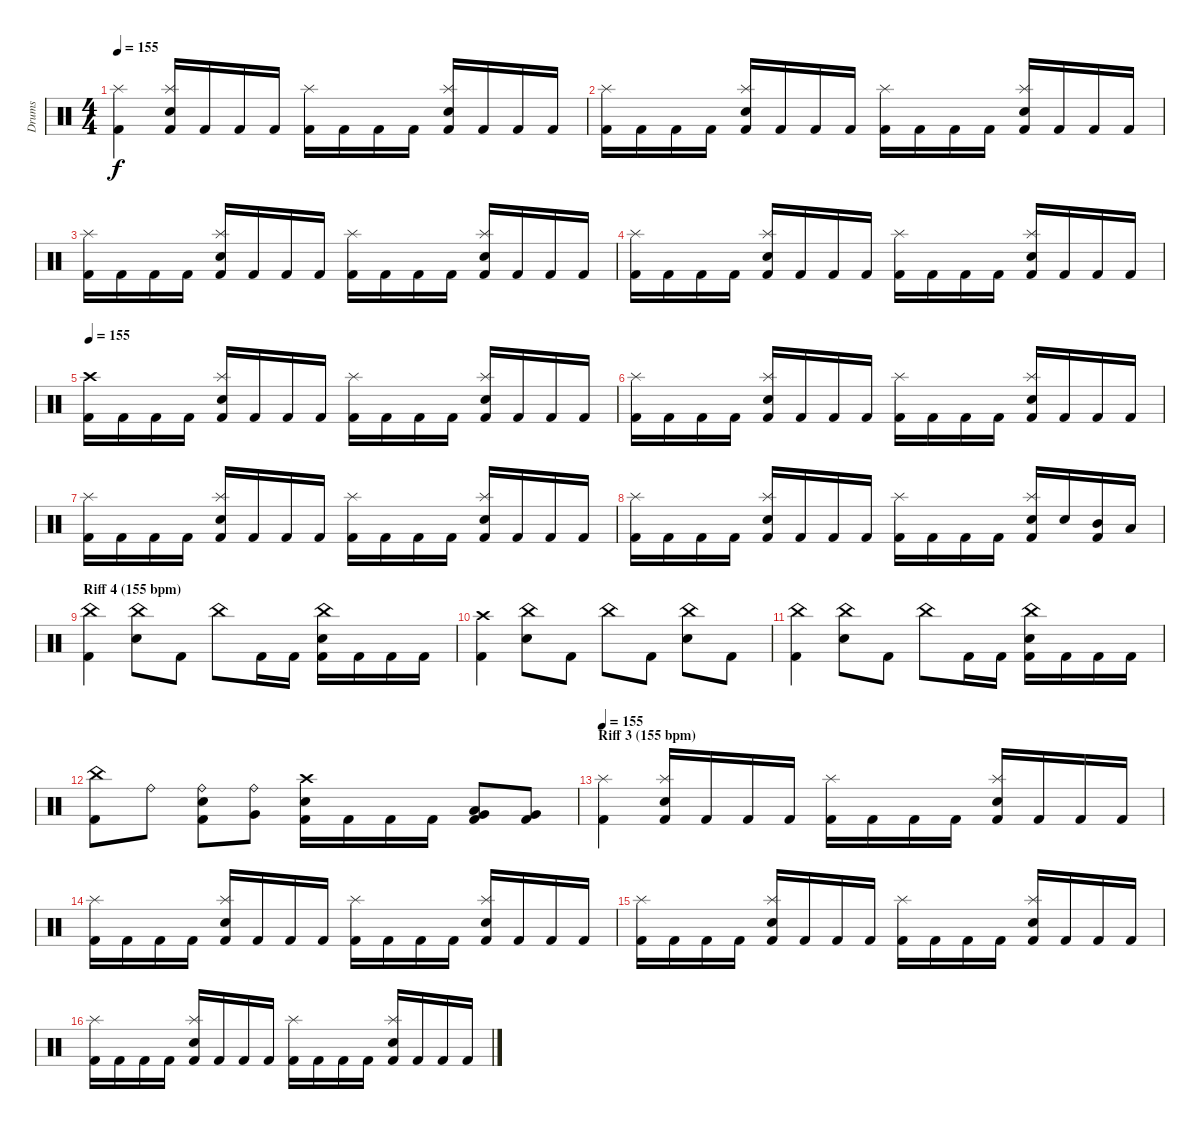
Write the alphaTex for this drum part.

\track ("Drums" "Drums") {instrument percussion}
\staff {score}
\articulation defaults
\ts (4 4)
\tempo 155
\clef neutral
\ks c
("Kick (hit) 2" "Splash (hit)").4{dy f} ("Kick (hit) 2" "Snare (hit) 2" "Splash (hit)").16 "Kick (hit) 2".16 "Kick (hit) 2".16 "Kick (hit) 2".16 ("Kick (hit) 2" "Splash (hit)").16 "Kick (hit) 2".16 "Kick (hit) 2".16 "Kick (hit) 2".16 ("Kick (hit) 2" "Snare (hit) 2" "Splash (hit)").16 "Kick (hit) 2".16 "Kick (hit) 2".16 "Kick (hit) 2".16 |
("Kick (hit) 2" "Splash (hit)").16 "Kick (hit) 2".16 "Kick (hit) 2".16 "Kick (hit) 2".16 ("Kick (hit) 2" "Snare (hit) 2" "Splash (hit)").16 "Kick (hit) 2".16 "Kick (hit) 2".16 "Kick (hit) 2".16 ("Kick (hit) 2" "Splash (hit)").16 "Kick (hit) 2".16 "Kick (hit) 2".16 "Kick (hit) 2".16 ("Kick (hit) 2" "Snare (hit) 2" "Splash (hit)").16 "Kick (hit) 2".16 "Kick (hit) 2".16 "Kick (hit) 2".16 |
("Kick (hit) 2" "Splash (hit)").16 "Kick (hit) 2".16 "Kick (hit) 2".16 "Kick (hit) 2".16 ("Kick (hit) 2" "Snare (hit) 2" "Splash (hit)").16 "Kick (hit) 2".16 "Kick (hit) 2".16 "Kick (hit) 2".16 ("Kick (hit) 2" "Splash (hit)").16 "Kick (hit) 2".16 "Kick (hit) 2".16 "Kick (hit) 2".16 ("Kick (hit) 2" "Snare (hit) 2" "Splash (hit)").16 "Kick (hit) 2".16 "Kick (hit) 2".16 "Kick (hit) 2".16 |
("Kick (hit) 2" "Splash (hit)").16 "Kick (hit) 2".16 "Kick (hit) 2".16 "Kick (hit) 2".16 ("Kick (hit) 2" "Snare (hit) 2" "Splash (hit)").16 "Kick (hit) 2".16 "Kick (hit) 2".16 "Kick (hit) 2".16 ("Kick (hit) 2" "Splash (hit)").16 "Kick (hit) 2".16 "Kick (hit) 2".16 "Kick (hit) 2".16 ("Kick (hit) 2" "Snare (hit) 2" "Splash (hit)").16 "Kick (hit) 2".16 "Kick (hit) 2".16 "Kick (hit) 2".16 |
\tempo 155
("Kick (hit) 2" "Crash high (hit)").16 "Kick (hit) 2".16 "Kick (hit) 2".16 "Kick (hit) 2".16 ("Kick (hit) 2" "Snare (hit) 2" "Splash (hit)").16 "Kick (hit) 2".16 "Kick (hit) 2".16 "Kick (hit) 2".16 ("Kick (hit) 2" "Splash (hit)").16 "Kick (hit) 2".16 "Kick (hit) 2".16 "Kick (hit) 2".16 ("Kick (hit) 2" "Snare (hit) 2" "Splash (hit)").16 "Kick (hit) 2".16 "Kick (hit) 2".16 "Kick (hit) 2".16 |
("Kick (hit) 2" "Splash (hit)").16 "Kick (hit) 2".16 "Kick (hit) 2".16 "Kick (hit) 2".16 ("Kick (hit) 2" "Snare (hit) 2" "Splash (hit)").16 "Kick (hit) 2".16 "Kick (hit) 2".16 "Kick (hit) 2".16 ("Kick (hit) 2" "Splash (hit)").16 "Kick (hit) 2".16 "Kick (hit) 2".16 "Kick (hit) 2".16 ("Kick (hit) 2" "Snare (hit) 2" "Splash (hit)").16 "Kick (hit) 2".16 "Kick (hit) 2".16 "Kick (hit) 2".16 |
("Kick (hit) 2" "Splash (hit)").16 "Kick (hit) 2".16 "Kick (hit) 2".16 "Kick (hit) 2".16 ("Kick (hit) 2" "Snare (hit) 2" "Splash (hit)").16 "Kick (hit) 2".16 "Kick (hit) 2".16 "Kick (hit) 2".16 ("Kick (hit) 2" "Splash (hit)").16 "Kick (hit) 2".16 "Kick (hit) 2".16 "Kick (hit) 2".16 ("Kick (hit) 2" "Snare (hit) 2" "Splash (hit)").16 "Kick (hit) 2".16 "Kick (hit) 2".16 "Kick (hit) 2".16 |
("Kick (hit) 2" "Splash (hit)").16 "Kick (hit) 2".16 "Kick (hit) 2".16 "Kick (hit) 2".16 ("Kick (hit) 2" "Snare (hit) 2" "Splash (hit)").16 "Kick (hit) 2".16 "Kick (hit) 2".16 "Kick (hit) 2".16 ("Kick (hit) 2" "Splash (hit)").16 "Kick (hit) 2".16 "Kick (hit) 2".16 "Kick (hit) 2".16 ("Kick (hit) 2" "Snare (hit) 2" "Splash (hit)").16 "Snare (hit) 2".16 ("Kick (hit) 2" "Mid Tom (hit)").16 "Low Tom (hit)".16 |
\section ("" "Riff 4 (155 bpm)")
("Kick (hit) 2" "China (hit)").4 ("Snare (hit) 2" "China (hit)").8 "Kick (hit) 2".8 "China (hit)".8 "Kick (hit) 2".16 "Kick (hit) 2".16 ("Kick (hit) 2" "Snare (hit) 2" "China (hit)").16 "Kick (hit) 2".16 "Kick (hit) 2".16 "Kick (hit) 2".16 |
("Kick (hit) 2" "Crash high (hit)").4 ("Snare (hit) 2" "China (hit)").8 "Kick (hit) 2".8 "China (hit)".8 "Kick (hit) 2".8 ("Snare (hit) 2" "China (hit)").8 "Kick (hit) 2".8 |
("Kick (hit) 2" "China (hit)").4 ("Snare (hit) 2" "China (hit)").8 "Kick (hit) 2".8 "China (hit)".8 "Kick (hit) 2".16 "Kick (hit) 2".16 ("Kick (hit) 2" "Snare (hit) 2" "China (hit)").16 "Kick (hit) 2".16 "Kick (hit) 2".16 "Kick (hit) 2".16 |
("Kick (hit) 2" "China (hit)").8 "Ride (bell)".8 ("Kick (hit) 2" "Ride (bell)" "Snare (hit) 2").8 ("Ride (bell)" "Very Low Tom (hit)").8 ("Kick (hit) 2" "Snare (hit) 2" "Crash high (hit)").16 "Kick (hit) 2".16 "Kick (hit) 2".16 "Kick (hit) 2".16 ("Kick (hit) 2" "Very Low Tom (hit)" "Low Tom (hit)").8 ("Kick (hit) 2" "Very Low Tom (hit)").8 |
\section ("" "Riff 3 (155 bpm)")
\tempo 155
("Kick (hit) 2" "Splash (hit)").4 ("Kick (hit) 2" "Snare (hit) 2" "Splash (hit)").16 "Kick (hit) 2".16 "Kick (hit) 2".16 "Kick (hit) 2".16 ("Kick (hit) 2" "Splash (hit)").16 "Kick (hit) 2".16 "Kick (hit) 2".16 "Kick (hit) 2".16 ("Kick (hit) 2" "Snare (hit) 2" "Splash (hit)").16 "Kick (hit) 2".16 "Kick (hit) 2".16 "Kick (hit) 2".16 |
("Kick (hit) 2" "Splash (hit)").16 "Kick (hit) 2".16 "Kick (hit) 2".16 "Kick (hit) 2".16 ("Kick (hit) 2" "Snare (hit) 2" "Splash (hit)").16 "Kick (hit) 2".16 "Kick (hit) 2".16 "Kick (hit) 2".16 ("Kick (hit) 2" "Splash (hit)").16 "Kick (hit) 2".16 "Kick (hit) 2".16 "Kick (hit) 2".16 ("Kick (hit) 2" "Snare (hit) 2" "Splash (hit)").16 "Kick (hit) 2".16 "Kick (hit) 2".16 "Kick (hit) 2".16 |
("Kick (hit) 2" "Splash (hit)").16 "Kick (hit) 2".16 "Kick (hit) 2".16 "Kick (hit) 2".16 ("Kick (hit) 2" "Snare (hit) 2" "Splash (hit)").16 "Kick (hit) 2".16 "Kick (hit) 2".16 "Kick (hit) 2".16 ("Kick (hit) 2" "Splash (hit)").16 "Kick (hit) 2".16 "Kick (hit) 2".16 "Kick (hit) 2".16 ("Kick (hit) 2" "Snare (hit) 2" "Splash (hit)").16 "Kick (hit) 2".16 "Kick (hit) 2".16 "Kick (hit) 2".16 |
("Kick (hit) 2" "Splash (hit)").16 "Kick (hit) 2".16 "Kick (hit) 2".16 "Kick (hit) 2".16 ("Kick (hit) 2" "Snare (hit) 2" "Splash (hit)").16 "Kick (hit) 2".16 "Kick (hit) 2".16 "Kick (hit) 2".16 ("Kick (hit) 2" "Splash (hit)").16 "Kick (hit) 2".16 "Kick (hit) 2".16 "Kick (hit) 2".16 ("Kick (hit) 2" "Snare (hit) 2" "Splash (hit)").16 "Kick (hit) 2".16 "Kick (hit) 2".16 "Kick (hit) 2".16
